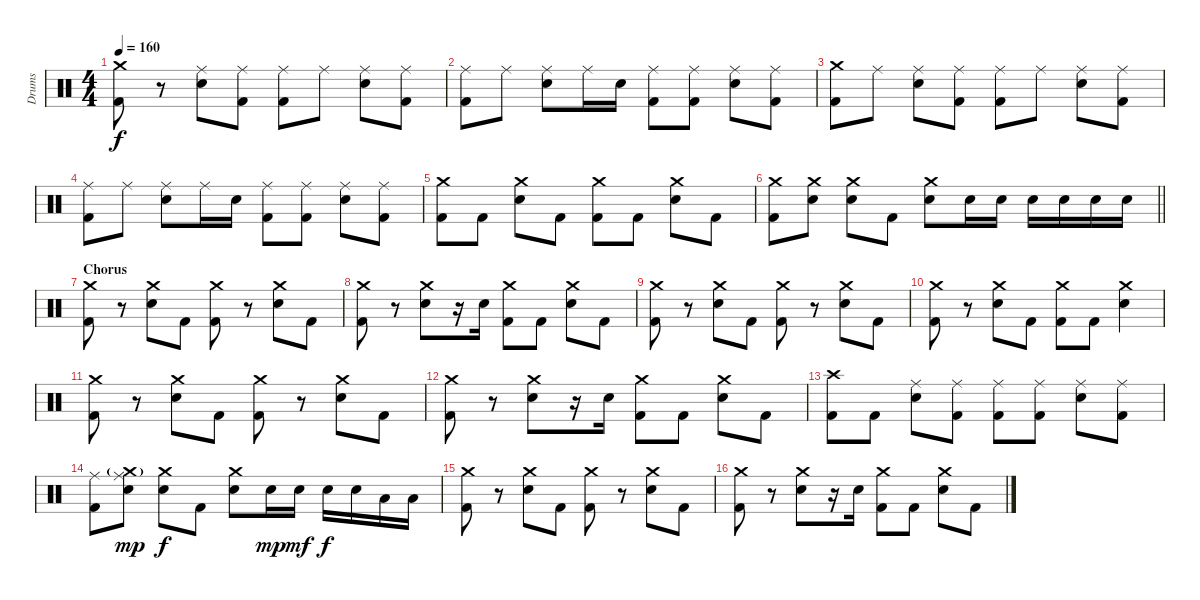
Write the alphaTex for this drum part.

\track ("Drums" "Drums") {instrument percussion}
\staff {score}
\articulation defaults
\ts (4 4)
\tempo 160
\clef neutral
\ks c
("Crash medium (hit)" "Kick (hit) 2").8{dy f} r.8 ("Ride (middle)" "Electric Snare (hit)").8 ("Ride (middle)" "Kick (hit) 2").8 ("Ride (middle)" "Kick (hit) 2").8 "Ride (middle)".8 ("Ride (middle)" "Electric Snare (hit)").8 ("Ride (middle)" "Kick (hit) 2").8 |
("Ride (middle)" "Kick (hit) 2").8 "Ride (middle)".8 ("Ride (middle)" "Electric Snare (hit)").8 "Ride (middle)".16 "Electric Snare (hit)".16 ("Ride (middle)" "Kick (hit) 2").8 ("Ride (middle)" "Kick (hit) 2").8 ("Ride (middle)" "Electric Snare (hit)").8 ("Ride (middle)" "Kick (hit) 2").8 |
("Crash medium (hit)" "Kick (hit) 2").8 "Ride (middle)".8 ("Ride (middle)" "Electric Snare (hit)").8 ("Ride (middle)" "Kick (hit) 2").8 ("Ride (middle)" "Kick (hit) 2").8 "Ride (middle)".8 ("Ride (middle)" "Electric Snare (hit)").8 ("Ride (middle)" "Kick (hit) 2").8 |
("Ride (middle)" "Kick (hit) 2").8 "Ride (middle)".8 ("Ride (middle)" "Electric Snare (hit)").8 "Ride (middle)".16 "Electric Snare (hit)".16 ("Ride (middle)" "Kick (hit) 2").8 ("Ride (middle)" "Kick (hit) 2").8 ("Ride (middle)" "Electric Snare (hit)").8 ("Ride (middle)" "Kick (hit) 2").8 |
("Crash medium (hit)" "Kick (hit) 2").8 "Kick (hit) 2".8 ("Crash medium (hit)" "Electric Snare (hit)").8 "Kick (hit) 2".8 ("Crash medium (hit)" "Kick (hit) 2").8 "Kick (hit) 2".8 ("Crash medium (hit)" "Electric Snare (hit)").8 "Kick (hit) 2".8 |
\barLineRight lightlight
("Crash medium (hit)" "Kick (hit) 2").8 ("Crash medium (hit)" "Electric Snare (hit)").8 ("Crash medium (hit)" "Electric Snare (hit)").8 "Kick (hit) 2".8 ("Crash medium (hit)" "Electric Snare (hit)").8 "Electric Snare (hit)".16 "Electric Snare (hit)".16 "Electric Snare (hit)".16 "Electric Snare (hit)".16 "Electric Snare (hit)".16 "Electric Snare (hit)".16 |
\section ("" "Chorus")
("Crash medium (hit)" "Kick (hit) 2").8 r.8 ("Crash medium (hit)" "Electric Snare (hit)").8 "Kick (hit) 2".8 ("Crash medium (hit)" "Kick (hit) 2").8 r.8 ("Crash medium (hit)" "Electric Snare (hit)").8 "Kick (hit) 2".8 |
("Crash medium (hit)" "Kick (hit) 2").8 r.8 ("Crash medium (hit)" "Electric Snare (hit)").8 r.16 "Electric Snare (hit)".16 ("Crash medium (hit)" "Kick (hit) 2").8 "Kick (hit) 2".8 ("Crash medium (hit)" "Electric Snare (hit)").8 "Kick (hit) 2".8 |
("Crash medium (hit)" "Kick (hit) 2").8 r.8 ("Crash medium (hit)" "Electric Snare (hit)").8 "Kick (hit) 2".8 ("Crash medium (hit)" "Kick (hit) 2").8 r.8 ("Crash medium (hit)" "Electric Snare (hit)").8 "Kick (hit) 2".8 |
("Crash medium (hit)" "Kick (hit) 2").8 r.8 ("Crash medium (hit)" "Electric Snare (hit)").8 "Kick (hit) 2".8 ("Crash medium (hit)" "Kick (hit) 2").8 "Kick (hit) 2".8 ("Crash medium (hit)" "Electric Snare (hit)").4 |
("Crash medium (hit)" "Kick (hit) 2").8 r.8 ("Crash medium (hit)" "Electric Snare (hit)").8 "Kick (hit) 2".8 ("Crash medium (hit)" "Kick (hit) 2").8 r.8 ("Crash medium (hit)" "Electric Snare (hit)").8 "Kick (hit) 2".8 |
("Crash medium (hit)" "Kick (hit) 2").8 r.8 ("Crash medium (hit)" "Electric Snare (hit)").8 r.16 "Electric Snare (hit)".16 ("Crash medium (hit)" "Kick (hit) 2").8 "Kick (hit) 2".8 ("Crash medium (hit)" "Electric Snare (hit)").8 "Kick (hit) 2".8 |
("Crash high (hit)" "Kick (hit) 2").8 "Kick (hit) 2".8 ("Ride (middle)" "Electric Snare (hit)").8 ("Ride (middle)" "Kick (hit) 2").8 ("Ride (middle)" "Kick (hit) 2").8 ("Ride (middle)" "Kick (hit) 2").8 ("Ride (middle)" "Electric Snare (hit)").8 ("Ride (middle)" "Kick (hit) 2").8 |
("Ride (middle)" "Kick (hit) 2").8 ("Crash medium (hit)"{g} "Ride (middle)" "Electric Snare (hit)").8{dy mp} ("Crash medium (hit)" "Electric Snare (hit)").8{dy f} "Kick (hit) 2".8 ("Crash medium (hit)" "Electric Snare (hit)").8 "Electric Snare (hit)".16{dy mp} "Electric Snare (hit)".16{dy mf} "Electric Snare (hit)".16{dy f} "Electric Snare (hit)".16 "Low Floor Tom (hit)".16 "Low Floor Tom (hit)".16 |
("Crash medium (hit)" "Kick (hit) 2").8 r.8 ("Crash medium (hit)" "Electric Snare (hit)").8 "Kick (hit) 2".8 ("Crash medium (hit)" "Kick (hit) 2").8 r.8 ("Crash medium (hit)" "Electric Snare (hit)").8 "Kick (hit) 2".8 |
("Crash medium (hit)" "Kick (hit) 2").8 r.8 ("Crash medium (hit)" "Electric Snare (hit)").8 r.16 "Electric Snare (hit)".16 ("Crash medium (hit)" "Kick (hit) 2").8 "Kick (hit) 2".8 ("Crash medium (hit)" "Electric Snare (hit)").8 "Kick (hit) 2".8
